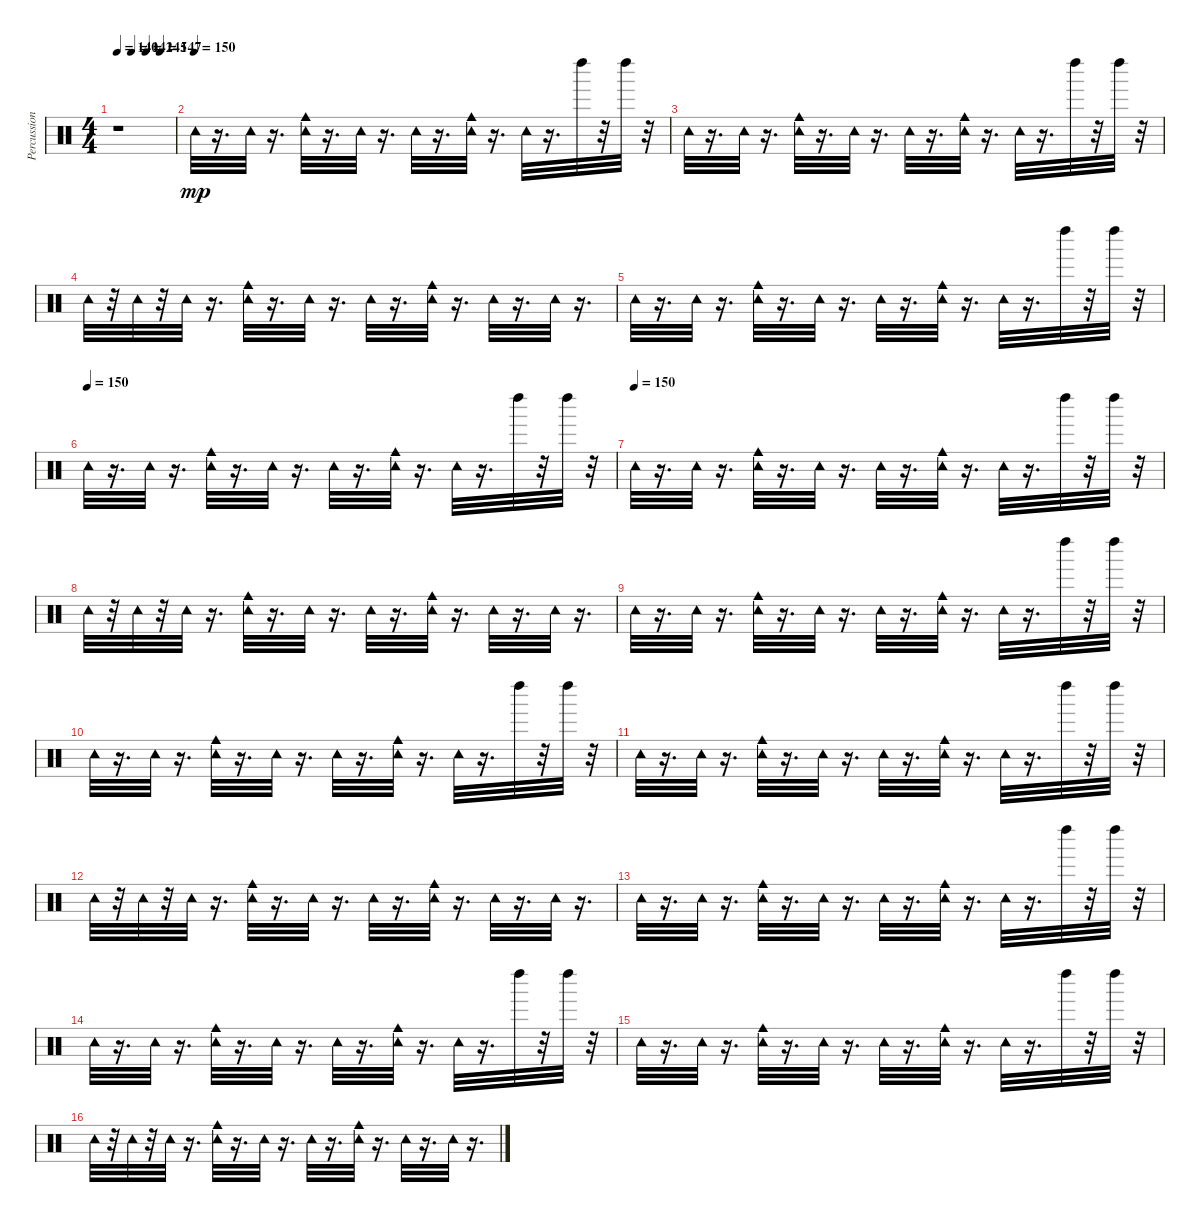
\track ("Percussion" "Percussion") {instrument percussion}
\staff {score}
\articulation defaults
\ts (4 4)
\tempo 140
\tempo (142 0.25)
\tempo (145 0.5)
\tempo (147 0.75)
\clef neutral
\ks c
r.1{dy mp} |
\tempo (150)
"Tambourine (hit)".32 r.16{d} "Tambourine (hit)".32 r.16{d} ("Tambourine (hit)" "Cowbell medium (hit)").32 r.16{d} "Tambourine (hit)".32 r.16{d} "Tambourine (hit)".32 r.16{d} ("Tambourine (hit)" "Cowbell medium (hit)").32 r.16{d} "Tambourine (hit)".32 r.16{d} "Left Maraca (hit)".32 r.32 "Left Maraca (hit)".32 r.32 |
"Tambourine (hit)".32 r.16{d} "Tambourine (hit)".32 r.16{d} ("Tambourine (hit)" "Cowbell medium (hit)").32 r.16{d} "Tambourine (hit)".32 r.16{d} "Tambourine (hit)".32 r.16{d} ("Tambourine (hit)" "Cowbell medium (hit)").32 r.16{d} "Tambourine (hit)".32 r.16{d} "Left Maraca (hit)".32 r.32 "Left Maraca (hit)".32 r.32 |
"Tambourine (hit)".32 r.32 "Tambourine (hit)".32 r.32 "Tambourine (hit)".32 r.16{d} ("Tambourine (hit)" "Cowbell medium (hit)").32 r.16{d} "Tambourine (hit)".32 r.16{d} "Tambourine (hit)".32 r.16{d} ("Tambourine (hit)" "Cowbell medium (hit)").32 r.16{d} "Tambourine (hit)".32 r.16{d} "Tambourine (hit)".32 r.16{d} |
"Tambourine (hit)".32 r.16{d} "Tambourine (hit)".32 r.16{d} ("Tambourine (hit)" "Cowbell medium (hit)").32 r.16{d} "Tambourine (hit)".32 r.16{d} "Tambourine (hit)".32 r.16{d} ("Tambourine (hit)" "Cowbell medium (hit)").32 r.16{d} "Tambourine (hit)".32 r.16{d} "Left Maraca (hit)".32 r.32 "Left Maraca (hit)".32 r.32 |
\tempo (150)
"Tambourine (hit)".32 r.16{d} "Tambourine (hit)".32 r.16{d} ("Tambourine (hit)" "Cowbell medium (hit)").32 r.16{d} "Tambourine (hit)".32 r.16{d} "Tambourine (hit)".32 r.16{d} ("Tambourine (hit)" "Cowbell medium (hit)").32 r.16{d} "Tambourine (hit)".32 r.16{d} "Left Maraca (hit)".32 r.32 "Left Maraca (hit)".32 r.32 |
\tempo (150)
"Tambourine (hit)".32 r.16{d} "Tambourine (hit)".32 r.16{d} ("Tambourine (hit)" "Cowbell medium (hit)").32 r.16{d} "Tambourine (hit)".32 r.16{d} "Tambourine (hit)".32 r.16{d} ("Tambourine (hit)" "Cowbell medium (hit)").32 r.16{d} "Tambourine (hit)".32 r.16{d} "Left Maraca (hit)".32 r.32 "Left Maraca (hit)".32 r.32 |
"Tambourine (hit)".32 r.32 "Tambourine (hit)".32 r.32 "Tambourine (hit)".32 r.16{d} ("Tambourine (hit)" "Cowbell medium (hit)").32 r.16{d} "Tambourine (hit)".32 r.16{d} "Tambourine (hit)".32 r.16{d} ("Tambourine (hit)" "Cowbell medium (hit)").32 r.16{d} "Tambourine (hit)".32 r.16{d} "Tambourine (hit)".32 r.16{d} |
"Tambourine (hit)".32 r.16{d} "Tambourine (hit)".32 r.16{d} ("Tambourine (hit)" "Cowbell medium (hit)").32 r.16{d} "Tambourine (hit)".32 r.16{d} "Tambourine (hit)".32 r.16{d} ("Tambourine (hit)" "Cowbell medium (hit)").32 r.16{d} "Tambourine (hit)".32 r.16{d} "Left Maraca (hit)".32 r.32 "Left Maraca (hit)".32 r.32 |
"Tambourine (hit)".32 r.16{d} "Tambourine (hit)".32 r.16{d} ("Tambourine (hit)" "Cowbell medium (hit)").32 r.16{d} "Tambourine (hit)".32 r.16{d} "Tambourine (hit)".32 r.16{d} ("Tambourine (hit)" "Cowbell medium (hit)").32 r.16{d} "Tambourine (hit)".32 r.16{d} "Left Maraca (hit)".32 r.32 "Left Maraca (hit)".32 r.32 |
"Tambourine (hit)".32 r.16{d} "Tambourine (hit)".32 r.16{d} ("Tambourine (hit)" "Cowbell medium (hit)").32 r.16{d} "Tambourine (hit)".32 r.16{d} "Tambourine (hit)".32 r.16{d} ("Tambourine (hit)" "Cowbell medium (hit)").32 r.16{d} "Tambourine (hit)".32 r.16{d} "Left Maraca (hit)".32 r.32 "Left Maraca (hit)".32 r.32 |
"Tambourine (hit)".32 r.32 "Tambourine (hit)".32 r.32 "Tambourine (hit)".32 r.16{d} ("Tambourine (hit)" "Cowbell medium (hit)").32 r.16{d} "Tambourine (hit)".32 r.16{d} "Tambourine (hit)".32 r.16{d} ("Tambourine (hit)" "Cowbell medium (hit)").32 r.16{d} "Tambourine (hit)".32 r.16{d} "Tambourine (hit)".32 r.16{d} |
"Tambourine (hit)".32 r.16{d} "Tambourine (hit)".32 r.16{d} ("Tambourine (hit)" "Cowbell medium (hit)").32 r.16{d} "Tambourine (hit)".32 r.16{d} "Tambourine (hit)".32 r.16{d} ("Tambourine (hit)" "Cowbell medium (hit)").32 r.16{d} "Tambourine (hit)".32 r.16{d} "Left Maraca (hit)".32 r.32 "Left Maraca (hit)".32 r.32 |
"Tambourine (hit)".32 r.16{d} "Tambourine (hit)".32 r.16{d} ("Tambourine (hit)" "Cowbell medium (hit)").32 r.16{d} "Tambourine (hit)".32 r.16{d} "Tambourine (hit)".32 r.16{d} ("Tambourine (hit)" "Cowbell medium (hit)").32 r.16{d} "Tambourine (hit)".32 r.16{d} "Left Maraca (hit)".32 r.32 "Left Maraca (hit)".32 r.32 |
"Tambourine (hit)".32 r.16{d} "Tambourine (hit)".32 r.16{d} ("Tambourine (hit)" "Cowbell medium (hit)").32 r.16{d} "Tambourine (hit)".32 r.16{d} "Tambourine (hit)".32 r.16{d} ("Tambourine (hit)" "Cowbell medium (hit)").32 r.16{d} "Tambourine (hit)".32 r.16{d} "Left Maraca (hit)".32 r.32 "Left Maraca (hit)".32 r.32 |
"Tambourine (hit)".32 r.32 "Tambourine (hit)".32 r.32 "Tambourine (hit)".32 r.16{d} ("Tambourine (hit)" "Cowbell medium (hit)").32 r.16{d} "Tambourine (hit)".32 r.16{d} "Tambourine (hit)".32 r.16{d} ("Tambourine (hit)" "Cowbell medium (hit)").32 r.16{d} "Tambourine (hit)".32 r.16{d} "Tambourine (hit)".32 r.16{d}
